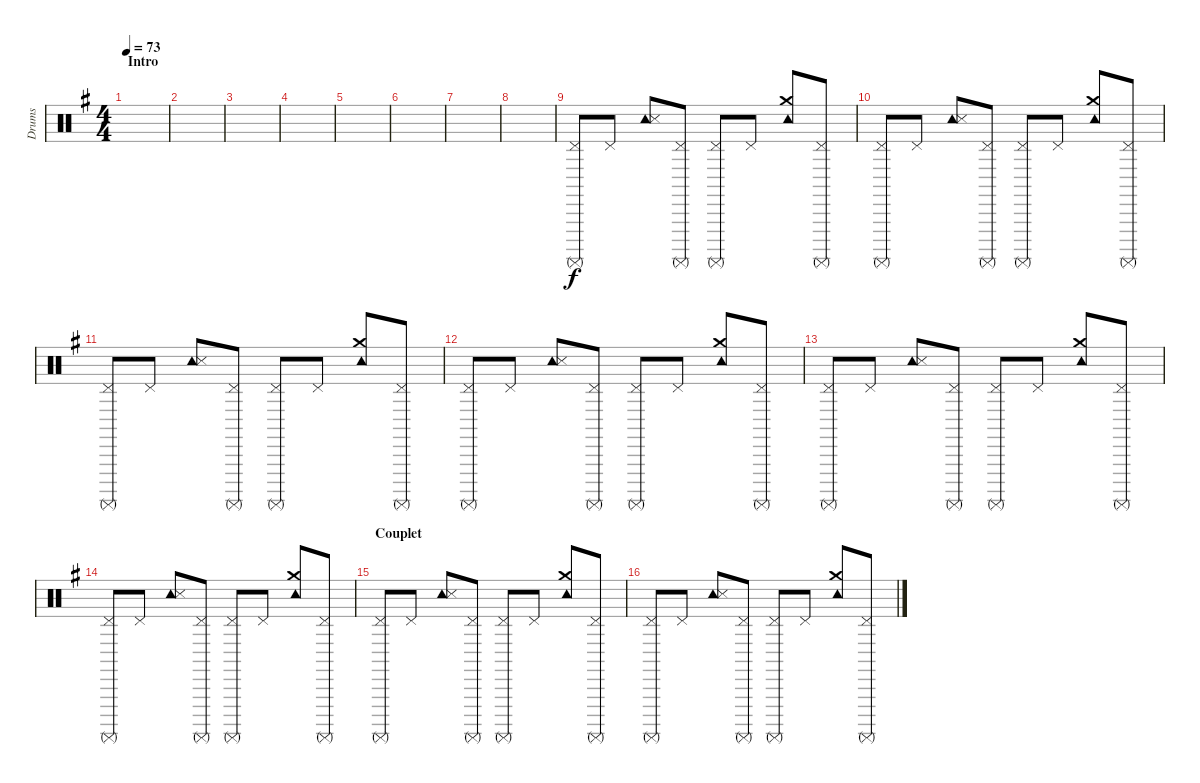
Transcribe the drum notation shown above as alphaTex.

\track ("Drums" "Drums") {instrument percussion}
\staff {score}
\articulation defaults
\ts (4 4)
\section ("" "Intro")
\tempo 73
\clef neutral
\ks g
|
|
|
|
|
|
|
|
("Pedal Hi-Hat (hit)" "Surdo (mute)").8 "Pedal Hi-Hat (hit)".8 ("Tambourine (hit)" "Snare (side stick) 3").8 ("Pedal Hi-Hat (hit)" "Surdo (mute)").8 ("Pedal Hi-Hat (hit)" "Surdo (mute)").8 "Pedal Hi-Hat (hit)".8 ("Tambourine (hit)" "Crash medium (hit)").8 ("Pedal Hi-Hat (hit)" "Surdo (mute)").8 |
("Pedal Hi-Hat (hit)" "Surdo (mute)").8 "Pedal Hi-Hat (hit)".8 ("Tambourine (hit)" "Snare (side stick) 3").8 ("Pedal Hi-Hat (hit)" "Surdo (mute)").8 ("Pedal Hi-Hat (hit)" "Surdo (mute)").8 "Pedal Hi-Hat (hit)".8 ("Tambourine (hit)" "Crash medium (hit)").8 ("Pedal Hi-Hat (hit)" "Surdo (mute)").8 |
("Pedal Hi-Hat (hit)" "Surdo (mute)").8 "Pedal Hi-Hat (hit)".8 ("Tambourine (hit)" "Snare (side stick) 3").8 ("Pedal Hi-Hat (hit)" "Surdo (mute)").8 ("Pedal Hi-Hat (hit)" "Surdo (mute)").8 "Pedal Hi-Hat (hit)".8 ("Tambourine (hit)" "Crash medium (hit)").8 ("Pedal Hi-Hat (hit)" "Surdo (mute)").8 |
("Pedal Hi-Hat (hit)" "Surdo (mute)").8 "Pedal Hi-Hat (hit)".8 ("Tambourine (hit)" "Snare (side stick) 3").8 ("Pedal Hi-Hat (hit)" "Surdo (mute)").8 ("Pedal Hi-Hat (hit)" "Surdo (mute)").8 "Pedal Hi-Hat (hit)".8 ("Tambourine (hit)" "Crash medium (hit)").8 ("Pedal Hi-Hat (hit)" "Surdo (mute)").8 |
("Pedal Hi-Hat (hit)" "Surdo (mute)").8 "Pedal Hi-Hat (hit)".8 ("Tambourine (hit)" "Snare (side stick) 3").8 ("Pedal Hi-Hat (hit)" "Surdo (mute)").8 ("Pedal Hi-Hat (hit)" "Surdo (mute)").8 "Pedal Hi-Hat (hit)".8 ("Tambourine (hit)" "Crash medium (hit)").8 ("Pedal Hi-Hat (hit)" "Surdo (mute)").8 |
("Pedal Hi-Hat (hit)" "Surdo (mute)").8 "Pedal Hi-Hat (hit)".8 ("Tambourine (hit)" "Snare (side stick) 3").8 ("Pedal Hi-Hat (hit)" "Surdo (mute)").8 ("Pedal Hi-Hat (hit)" "Surdo (mute)").8 "Pedal Hi-Hat (hit)".8 ("Tambourine (hit)" "Crash medium (hit)").8 ("Pedal Hi-Hat (hit)" "Surdo (mute)").8 |
\section ("" "Couplet")
("Pedal Hi-Hat (hit)" "Surdo (mute)").8 "Pedal Hi-Hat (hit)".8 ("Tambourine (hit)" "Snare (side stick) 3").8 ("Pedal Hi-Hat (hit)" "Surdo (mute)").8 ("Pedal Hi-Hat (hit)" "Surdo (mute)").8 "Pedal Hi-Hat (hit)".8 ("Tambourine (hit)" "Crash medium (hit)").8 ("Pedal Hi-Hat (hit)" "Surdo (mute)").8 |
("Pedal Hi-Hat (hit)" "Surdo (mute)").8 "Pedal Hi-Hat (hit)".8 ("Tambourine (hit)" "Snare (side stick) 3").8 ("Pedal Hi-Hat (hit)" "Surdo (mute)").8 ("Pedal Hi-Hat (hit)" "Surdo (mute)").8 "Pedal Hi-Hat (hit)".8 ("Tambourine (hit)" "Crash medium (hit)").8 ("Pedal Hi-Hat (hit)" "Surdo (mute)").8
